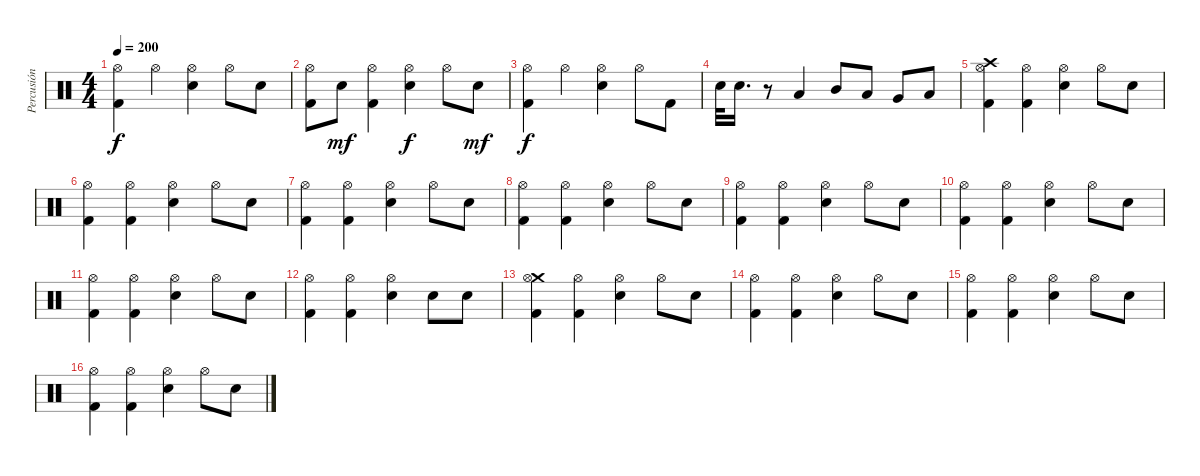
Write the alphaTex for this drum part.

\track ("Percusión" "Percusión") {instrument percussion}
\staff {score}
\articulation defaults
\ts (4 4)
\tempo 200
\clef neutral
\ks c
("Hi-Hat (open)" "Kick (hit) 2").4{dy f} "Hi-Hat (open)".4 ("Hi-Hat (open)" "Electric Snare (hit)").4 "Hi-Hat (open)".8 "Electric Snare (hit)".8 |
("Hi-Hat (open)" "Kick (hit) 2").8 "Electric Snare (hit)".8{dy mf} ("Hi-Hat (open)" "Kick (hit) 2").4 ("Hi-Hat (open)" "Electric Snare (hit)").4{dy f} "Hi-Hat (open)".8 "Electric Snare (hit)".8{dy mf} |
("Hi-Hat (open)" "Kick (hit) 2").4{dy f} "Hi-Hat (open)".4 ("Hi-Hat (open)" "Electric Snare (hit)").4 "Hi-Hat (open)".8 "Kick (hit) 2".8 |
"Electric Snare (hit)".32 "Electric Snare (hit)".16{d} r.8 "Low Tom (hit)".4 "Mid Tom (hit)".8 "Low Tom (hit)".8 "Very Low Tom (hit)".8 "Low Floor Tom (hit)".8 |
("Crash high (hit)" "Hi-Hat (open)" "Kick (hit) 2").4 ("Hi-Hat (open)" "Kick (hit) 2").4 ("Hi-Hat (open)" "Electric Snare (hit)").4 "Hi-Hat (open)".8 "Electric Snare (hit)".8 |
("Hi-Hat (open)" "Kick (hit) 2").4 ("Hi-Hat (open)" "Kick (hit) 2").4 ("Hi-Hat (open)" "Electric Snare (hit)").4 "Hi-Hat (open)".8 "Electric Snare (hit)".8 |
("Hi-Hat (open)" "Kick (hit) 2").4 ("Hi-Hat (open)" "Kick (hit) 2").4 ("Hi-Hat (open)" "Electric Snare (hit)").4 "Hi-Hat (open)".8 "Electric Snare (hit)".8 |
("Hi-Hat (open)" "Kick (hit) 2").4 ("Hi-Hat (open)" "Kick (hit) 2").4 ("Hi-Hat (open)" "Electric Snare (hit)").4 "Hi-Hat (open)".8 "Electric Snare (hit)".8 |
("Hi-Hat (open)" "Kick (hit) 2").4 ("Hi-Hat (open)" "Kick (hit) 2").4 ("Hi-Hat (open)" "Electric Snare (hit)").4 "Hi-Hat (open)".8 "Electric Snare (hit)".8 |
("Hi-Hat (open)" "Kick (hit) 2").4 ("Hi-Hat (open)" "Kick (hit) 2").4 ("Hi-Hat (open)" "Electric Snare (hit)").4 "Hi-Hat (open)".8 "Electric Snare (hit)".8 |
("Hi-Hat (open)" "Kick (hit) 2").4 ("Hi-Hat (open)" "Kick (hit) 2").4 ("Hi-Hat (open)" "Electric Snare (hit)").4 "Hi-Hat (open)".8 "Electric Snare (hit)".8 |
("Hi-Hat (open)" "Kick (hit) 2").4 ("Hi-Hat (open)" "Kick (hit) 2").4 ("Hi-Hat (open)" "Electric Snare (hit)").4 "Electric Snare (hit)".8 "Electric Snare (hit)".8 |
("Crash medium (hit)" "Hi-Hat (open)" "Kick (hit) 2").4 ("Hi-Hat (open)" "Kick (hit) 2").4 ("Hi-Hat (open)" "Electric Snare (hit)").4 "Hi-Hat (open)".8 "Electric Snare (hit)".8 |
("Hi-Hat (open)" "Kick (hit) 2").4 ("Hi-Hat (open)" "Kick (hit) 2").4 ("Hi-Hat (open)" "Electric Snare (hit)").4 "Hi-Hat (open)".8 "Electric Snare (hit)".8 |
("Hi-Hat (open)" "Kick (hit) 2").4 ("Hi-Hat (open)" "Kick (hit) 2").4 ("Hi-Hat (open)" "Electric Snare (hit)").4 "Hi-Hat (open)".8 "Electric Snare (hit)".8 |
("Hi-Hat (open)" "Kick (hit) 2").4 ("Hi-Hat (open)" "Kick (hit) 2").4 ("Hi-Hat (open)" "Electric Snare (hit)").4 "Hi-Hat (open)".8 "Electric Snare (hit)".8
